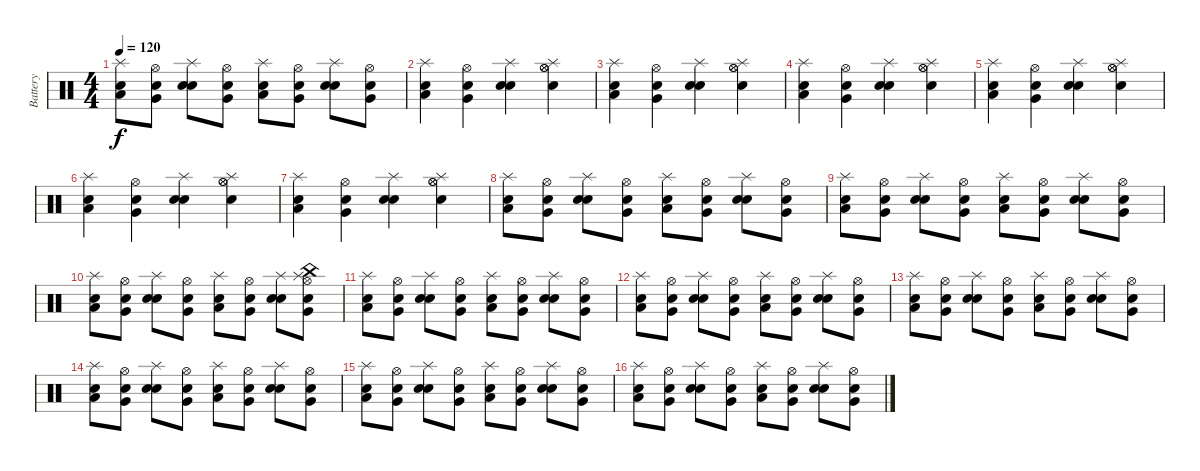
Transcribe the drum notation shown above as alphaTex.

\track ("Battery" "Battery") {instrument percussion}
\staff {score}
\articulation defaults
\ts (4 4)
\tempo 120
\clef neutral
\ks c
("Snare (hit) 2" "Low Floor Tom (hit)" "Splash (hit)").8{dy f} ("Snare (hit) 2" "Very Low Tom (hit)" "Hi-Hat (open)").8 ("Snare (hit) 2" "Electric Snare (hit)" "Splash (hit)").8 ("Snare (hit) 2" "Very Low Tom (hit)" "Hi-Hat (open)").8 ("Snare (hit) 2" "Low Floor Tom (hit)" "Splash (hit)").8 ("Snare (hit) 2" "Very Low Tom (hit)" "Hi-Hat (open)").8 ("Snare (hit) 2" "Electric Snare (hit)" "Splash (hit)").8 ("Snare (hit) 2" "Very Low Tom (hit)" "Hi-Hat (open)").8 |
("Snare (hit) 2" "Low Floor Tom (hit)" "Splash (hit)").4 ("Snare (hit) 2" "Very Low Tom (hit)" "Hi-Hat (open)").4 ("Snare (hit) 2" "Electric Snare (hit)" "Splash (hit)").4 ("Snare (hit) 2" "Hi-Hat (open)" "Splash (hit)" "Hi-Hat (open)").4 |
("Snare (hit) 2" "Low Floor Tom (hit)" "Splash (hit)").4 ("Snare (hit) 2" "Very Low Tom (hit)" "Hi-Hat (open)").4 ("Snare (hit) 2" "Electric Snare (hit)" "Splash (hit)").4 ("Snare (hit) 2" "Hi-Hat (open)" "Splash (hit)" "Hi-Hat (open)").4 |
("Snare (hit) 2" "Low Floor Tom (hit)" "Splash (hit)").4 ("Snare (hit) 2" "Very Low Tom (hit)" "Hi-Hat (open)").4 ("Snare (hit) 2" "Electric Snare (hit)" "Splash (hit)").4 ("Snare (hit) 2" "Hi-Hat (open)" "Splash (hit)" "Hi-Hat (open)").4 |
("Snare (hit) 2" "Low Floor Tom (hit)" "Splash (hit)").4 ("Snare (hit) 2" "Very Low Tom (hit)" "Hi-Hat (open)").4 ("Snare (hit) 2" "Electric Snare (hit)" "Splash (hit)").4 ("Snare (hit) 2" "Hi-Hat (open)" "Splash (hit)" "Hi-Hat (open)").4 |
("Snare (hit) 2" "Low Floor Tom (hit)" "Splash (hit)").4 ("Snare (hit) 2" "Very Low Tom (hit)" "Hi-Hat (open)").4 ("Snare (hit) 2" "Electric Snare (hit)" "Splash (hit)").4 ("Snare (hit) 2" "Hi-Hat (open)" "Splash (hit)" "Hi-Hat (open)").4 |
("Snare (hit) 2" "Low Floor Tom (hit)" "Splash (hit)").4 ("Snare (hit) 2" "Very Low Tom (hit)" "Hi-Hat (open)").4 ("Snare (hit) 2" "Electric Snare (hit)" "Splash (hit)").4 ("Snare (hit) 2" "Hi-Hat (open)" "Splash (hit)" "Hi-Hat (open)").4 |
("Snare (hit) 2" "Low Floor Tom (hit)" "Splash (hit)").8 ("Snare (hit) 2" "Very Low Tom (hit)" "Hi-Hat (open)").8 ("Snare (hit) 2" "Electric Snare (hit)" "Splash (hit)").8 ("Snare (hit) 2" "Very Low Tom (hit)" "Hi-Hat (open)").8 ("Snare (hit) 2" "Low Floor Tom (hit)" "Splash (hit)").8 ("Snare (hit) 2" "Very Low Tom (hit)" "Hi-Hat (open)").8 ("Snare (hit) 2" "Electric Snare (hit)" "Splash (hit)").8 ("Snare (hit) 2" "Very Low Tom (hit)" "Hi-Hat (open)").8 |
("Snare (hit) 2" "Low Floor Tom (hit)" "Splash (hit)").8 ("Snare (hit) 2" "Very Low Tom (hit)" "Hi-Hat (open)").8 ("Snare (hit) 2" "Electric Snare (hit)" "Splash (hit)").8 ("Snare (hit) 2" "Very Low Tom (hit)" "Hi-Hat (open)").8 ("Snare (hit) 2" "Low Floor Tom (hit)" "Splash (hit)").8 ("Snare (hit) 2" "Very Low Tom (hit)" "Hi-Hat (open)").8 ("Snare (hit) 2" "Electric Snare (hit)" "Splash (hit)").8 ("Snare (hit) 2" "Very Low Tom (hit)" "Hi-Hat (open)").8 |
("Snare (hit) 2" "Low Floor Tom (hit)" "Splash (hit)").8 ("Snare (hit) 2" "Very Low Tom (hit)" "Hi-Hat (open)").8 ("Snare (hit) 2" "Electric Snare (hit)" "Splash (hit)").8 ("Snare (hit) 2" "Very Low Tom (hit)" "Hi-Hat (open)").8 ("Snare (hit) 2" "Low Floor Tom (hit)" "Splash (hit)").8 ("Snare (hit) 2" "Very Low Tom (hit)" "Hi-Hat (open)").8 ("Snare (hit) 2" "Electric Snare (hit)" "Splash (hit)").8 ("Snare (hit) 2" "Very Low Tom (hit)" "Splash (hit)" "Hi-Hat (open)" "China (hit)").8 |
("Snare (hit) 2" "Low Floor Tom (hit)" "Splash (hit)").8 ("Snare (hit) 2" "Very Low Tom (hit)" "Hi-Hat (open)").8 ("Snare (hit) 2" "Electric Snare (hit)" "Splash (hit)").8 ("Snare (hit) 2" "Very Low Tom (hit)" "Hi-Hat (open)").8 ("Snare (hit) 2" "Low Floor Tom (hit)" "Splash (hit)").8 ("Snare (hit) 2" "Very Low Tom (hit)" "Hi-Hat (open)").8 ("Snare (hit) 2" "Electric Snare (hit)" "Splash (hit)").8 ("Snare (hit) 2" "Very Low Tom (hit)" "Hi-Hat (open)").8 |
("Snare (hit) 2" "Low Floor Tom (hit)" "Splash (hit)").8 ("Snare (hit) 2" "Very Low Tom (hit)" "Hi-Hat (open)").8 ("Snare (hit) 2" "Electric Snare (hit)" "Splash (hit)").8 ("Snare (hit) 2" "Very Low Tom (hit)" "Hi-Hat (open)").8 ("Snare (hit) 2" "Low Floor Tom (hit)" "Splash (hit)").8 ("Snare (hit) 2" "Very Low Tom (hit)" "Hi-Hat (open)").8 ("Snare (hit) 2" "Electric Snare (hit)" "Splash (hit)").8 ("Snare (hit) 2" "Very Low Tom (hit)" "Hi-Hat (open)").8 |
("Snare (hit) 2" "Low Floor Tom (hit)" "Splash (hit)").8 ("Snare (hit) 2" "Very Low Tom (hit)" "Hi-Hat (open)").8 ("Snare (hit) 2" "Electric Snare (hit)" "Splash (hit)").8 ("Snare (hit) 2" "Very Low Tom (hit)" "Hi-Hat (open)").8 ("Snare (hit) 2" "Low Floor Tom (hit)" "Splash (hit)").8 ("Snare (hit) 2" "Very Low Tom (hit)" "Hi-Hat (open)").8 ("Snare (hit) 2" "Electric Snare (hit)" "Splash (hit)").8 ("Snare (hit) 2" "Very Low Tom (hit)" "Hi-Hat (open)").8 |
("Snare (hit) 2" "Low Floor Tom (hit)" "Splash (hit)").8 ("Snare (hit) 2" "Very Low Tom (hit)" "Hi-Hat (open)").8 ("Snare (hit) 2" "Electric Snare (hit)" "Splash (hit)").8 ("Snare (hit) 2" "Very Low Tom (hit)" "Hi-Hat (open)").8 ("Snare (hit) 2" "Low Floor Tom (hit)" "Splash (hit)").8 ("Snare (hit) 2" "Very Low Tom (hit)" "Hi-Hat (open)").8 ("Snare (hit) 2" "Electric Snare (hit)" "Splash (hit)").8 ("Snare (hit) 2" "Very Low Tom (hit)" "Hi-Hat (open)").8 |
("Snare (hit) 2" "Low Floor Tom (hit)" "Splash (hit)").8 ("Snare (hit) 2" "Very Low Tom (hit)" "Hi-Hat (open)").8 ("Snare (hit) 2" "Electric Snare (hit)" "Splash (hit)").8 ("Snare (hit) 2" "Very Low Tom (hit)" "Hi-Hat (open)").8 ("Snare (hit) 2" "Low Floor Tom (hit)" "Splash (hit)").8 ("Snare (hit) 2" "Very Low Tom (hit)" "Hi-Hat (open)").8 ("Snare (hit) 2" "Electric Snare (hit)" "Splash (hit)").8 ("Snare (hit) 2" "Very Low Tom (hit)" "Hi-Hat (open)").8 |
("Snare (hit) 2" "Low Floor Tom (hit)" "Splash (hit)").8 ("Snare (hit) 2" "Very Low Tom (hit)" "Hi-Hat (open)").8 ("Snare (hit) 2" "Electric Snare (hit)" "Splash (hit)").8 ("Snare (hit) 2" "Very Low Tom (hit)" "Hi-Hat (open)").8 ("Snare (hit) 2" "Low Floor Tom (hit)" "Splash (hit)").8 ("Snare (hit) 2" "Very Low Tom (hit)" "Hi-Hat (open)").8 ("Snare (hit) 2" "Electric Snare (hit)" "Splash (hit)").8 ("Snare (hit) 2" "Very Low Tom (hit)" "Hi-Hat (open)").8
